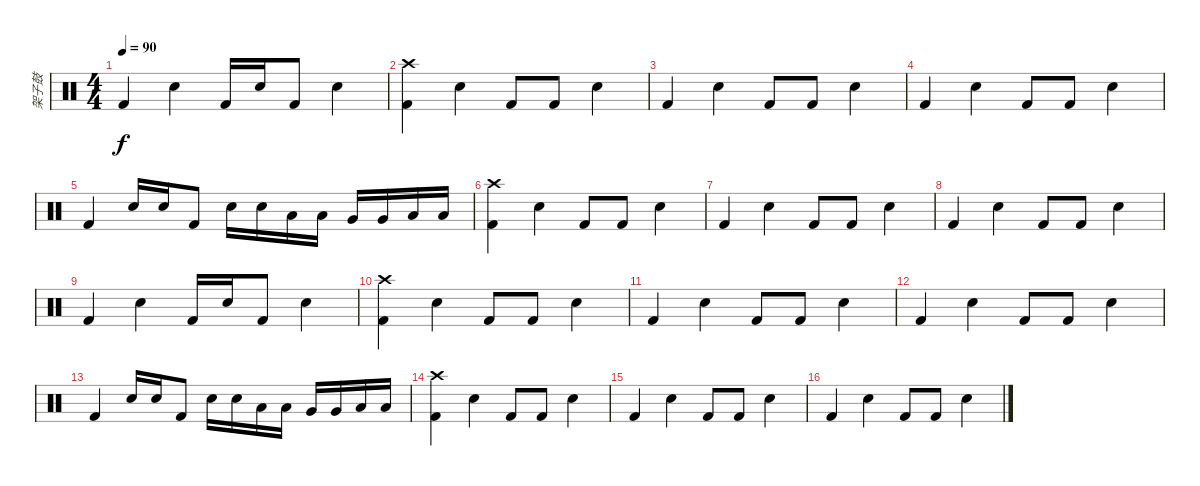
\track ("架子鼓" "架子鼓") {instrument percussion}
\staff {score}
\articulation defaults
\ts (4 4)
\tempo 90
\clef neutral
\ks c "Kick (hit) 2".4{dy f} "Electric Snare (hit)".4 "Kick (hit) 2".16 "Electric Snare (hit)".16 "Kick (hit) 2".8 "Electric Snare (hit)".4
|
("Kick (hit) 2" "Crash high (hit)").4 "Electric Snare (hit)".4 "Kick (hit) 2".8 "Kick (hit) 2".8 "Electric Snare (hit)".4 |
"Kick (hit) 2".4 "Electric Snare (hit)".4 "Kick (hit) 2".8 "Kick (hit) 2".8 "Electric Snare (hit)".4 |
"Kick (hit) 2".4 "Electric Snare (hit)".4 "Kick (hit) 2".8 "Kick (hit) 2".8 "Electric Snare (hit)".4 |
"Kick (hit) 2".4 "Electric Snare (hit)".16 "Electric Snare (hit)".16 "Kick (hit) 2".8 "Electric Snare (hit)".16 "Electric Snare (hit)".16 "Low Tom (hit)".16 "Low Tom (hit)".16 "Very Low Tom (hit)".16 "Very Low Tom (hit)".16 "Low Floor Tom (hit)".16 "Low Floor Tom (hit)".16 |
("Kick (hit) 2" "Crash high (hit)").4 "Electric Snare (hit)".4 "Kick (hit) 2".8 "Kick (hit) 2".8 "Electric Snare (hit)".4 |
"Kick (hit) 2".4 "Electric Snare (hit)".4 "Kick (hit) 2".8 "Kick (hit) 2".8 "Electric Snare (hit)".4 |
"Kick (hit) 2".4 "Electric Snare (hit)".4 "Kick (hit) 2".8 "Kick (hit) 2".8 "Electric Snare (hit)".4 |
"Kick (hit) 2".4 "Electric Snare (hit)".4 "Kick (hit) 2".16 "Electric Snare (hit)".16 "Kick (hit) 2".8 "Electric Snare (hit)".4 |
("Kick (hit) 2" "Crash high (hit)").4 "Electric Snare (hit)".4 "Kick (hit) 2".8 "Kick (hit) 2".8 "Electric Snare (hit)".4 |
"Kick (hit) 2".4 "Electric Snare (hit)".4 "Kick (hit) 2".8 "Kick (hit) 2".8 "Electric Snare (hit)".4 |
"Kick (hit) 2".4 "Electric Snare (hit)".4 "Kick (hit) 2".8 "Kick (hit) 2".8 "Electric Snare (hit)".4 |
"Kick (hit) 2".4 "Electric Snare (hit)".16 "Electric Snare (hit)".16 "Kick (hit) 2".8 "Electric Snare (hit)".16 "Electric Snare (hit)".16 "Low Tom (hit)".16 "Low Tom (hit)".16 "Very Low Tom (hit)".16 "Very Low Tom (hit)".16 "Low Floor Tom (hit)".16 "Low Floor Tom (hit)".16 |
("Kick (hit) 2" "Crash high (hit)").4 "Electric Snare (hit)".4 "Kick (hit) 2".8 "Kick (hit) 2".8 "Electric Snare (hit)".4 |
"Kick (hit) 2".4 "Electric Snare (hit)".4 "Kick (hit) 2".8 "Kick (hit) 2".8 "Electric Snare (hit)".4 |
"Kick (hit) 2".4 "Electric Snare (hit)".4 "Kick (hit) 2".8 "Kick (hit) 2".8 "Electric Snare (hit)".4
